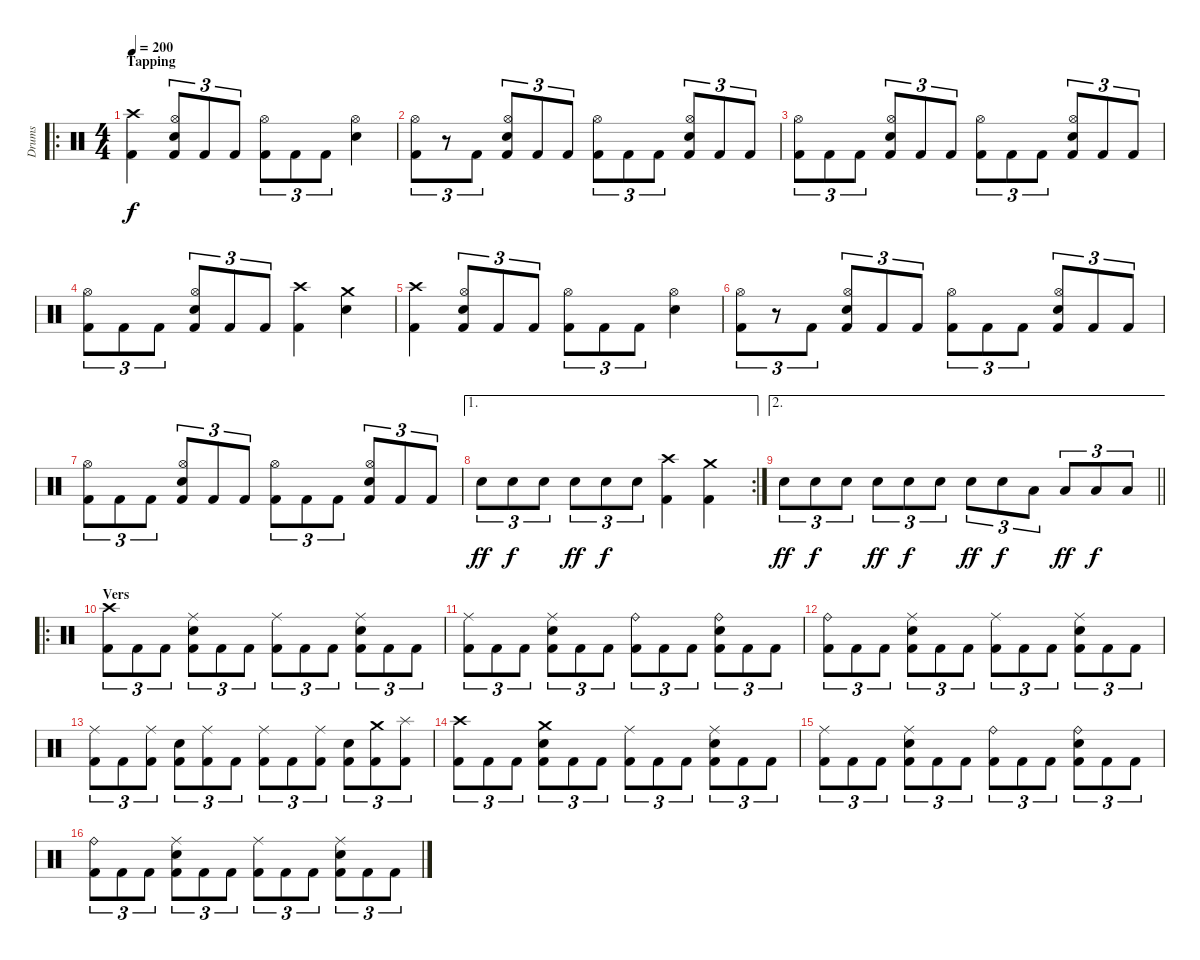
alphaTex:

\track ("Drums" "Drums") {instrument percussion}
\staff {score}
\articulation defaults
\ro
\ts (4 4)
\section ("" "Tapping")
\tempo 200
\clef neutral
\ks c
("Crash high (hit)" "Kick (hit) 2").4{dy f} ("Hi-Hat (open)" "Electric Snare (hit)" "Kick (hit) 2").8{tu (3 2)} "Kick (hit) 2".8{tu (3 2)} "Kick (hit) 2".8{tu (3 2)} ("Hi-Hat (open)" "Kick (hit) 2").8{tu (3 2)} "Kick (hit) 2".8{tu (3 2)} "Kick (hit) 2".8{tu (3 2)} ("Hi-Hat (open)" "Electric Snare (hit)").4 |
("Hi-Hat (open)" "Kick (hit) 2").8{tu (3 2)} r.8{tu (3 2)} "Kick (hit) 2".8{tu (3 2)} ("Hi-Hat (open)" "Electric Snare (hit)" "Kick (hit) 2").8{tu (3 2)} "Kick (hit) 2".8{tu (3 2)} "Kick (hit) 2".8{tu (3 2)} ("Hi-Hat (open)" "Kick (hit) 2").8{tu (3 2)} "Kick (hit) 2".8{tu (3 2)} "Kick (hit) 2".8{tu (3 2)} ("Hi-Hat (open)" "Electric Snare (hit)" "Kick (hit) 2").8{tu (3 2)} "Kick (hit) 2".8{tu (3 2)} "Kick (hit) 2".8{tu (3 2)} |
("Hi-Hat (open)" "Kick (hit) 2").8{tu (3 2)} "Kick (hit) 2".8{tu (3 2)} "Kick (hit) 2".8{tu (3 2)} ("Hi-Hat (open)" "Electric Snare (hit)" "Kick (hit) 2").8{tu (3 2)} "Kick (hit) 2".8{tu (3 2)} "Kick (hit) 2".8{tu (3 2)} ("Hi-Hat (open)" "Kick (hit) 2").8{tu (3 2)} "Kick (hit) 2".8{tu (3 2)} "Kick (hit) 2".8{tu (3 2)} ("Hi-Hat (open)" "Electric Snare (hit)" "Kick (hit) 2").8{tu (3 2)} "Kick (hit) 2".8{tu (3 2)} "Kick (hit) 2".8{tu (3 2)} |
("Hi-Hat (open)" "Kick (hit) 2").8{tu (3 2)} "Kick (hit) 2".8{tu (3 2)} "Kick (hit) 2".8{tu (3 2)} ("Hi-Hat (open)" "Electric Snare (hit)" "Kick (hit) 2").8{tu (3 2)} "Kick (hit) 2".8{tu (3 2)} "Kick (hit) 2".8{tu (3 2)} ("Crash high (hit)" "Kick (hit) 2").4 ("Crash medium (hit)" "Electric Snare (hit)").4 |
("Crash high (hit)" "Kick (hit) 2").4 ("Hi-Hat (open)" "Electric Snare (hit)" "Kick (hit) 2").8{tu (3 2)} "Kick (hit) 2".8{tu (3 2)} "Kick (hit) 2".8{tu (3 2)} ("Hi-Hat (open)" "Kick (hit) 2").8{tu (3 2)} "Kick (hit) 2".8{tu (3 2)} "Kick (hit) 2".8{tu (3 2)} ("Hi-Hat (open)" "Electric Snare (hit)").4 |
("Hi-Hat (open)" "Kick (hit) 2").8{tu (3 2)} r.8{tu (3 2)} "Kick (hit) 2".8{tu (3 2)} ("Hi-Hat (open)" "Electric Snare (hit)" "Kick (hit) 2").8{tu (3 2)} "Kick (hit) 2".8{tu (3 2)} "Kick (hit) 2".8{tu (3 2)} ("Hi-Hat (open)" "Kick (hit) 2").8{tu (3 2)} "Kick (hit) 2".8{tu (3 2)} "Kick (hit) 2".8{tu (3 2)} ("Hi-Hat (open)" "Electric Snare (hit)" "Kick (hit) 2").8{tu (3 2)} "Kick (hit) 2".8{tu (3 2)} "Kick (hit) 2".8{tu (3 2)} |
("Hi-Hat (open)" "Kick (hit) 2").8{tu (3 2)} "Kick (hit) 2".8{tu (3 2)} "Kick (hit) 2".8{tu (3 2)} ("Hi-Hat (open)" "Electric Snare (hit)" "Kick (hit) 2").8{tu (3 2)} "Kick (hit) 2".8{tu (3 2)} "Kick (hit) 2".8{tu (3 2)} ("Hi-Hat (open)" "Kick (hit) 2").8{tu (3 2)} "Kick (hit) 2".8{tu (3 2)} "Kick (hit) 2".8{tu (3 2)} ("Hi-Hat (open)" "Electric Snare (hit)" "Kick (hit) 2").8{tu (3 2)} "Kick (hit) 2".8{tu (3 2)} "Kick (hit) 2".8{tu (3 2)} |
\ae 1
\rc 2 "Electric Snare (hit)".8{tu (3 2) dy ff} "Electric Snare (hit)".8{tu (3 2) dy f} "Electric Snare (hit)".8{tu (3 2)} "Electric Snare (hit)".8{tu (3 2) dy ff} "Electric Snare (hit)".8{tu (3 2) dy f} "Electric Snare (hit)".8{tu (3 2)}
("Crash high (hit)" "Kick (hit) 2").4 ("Crash medium (hit)" "Kick (hit) 2").4 |
\ae 2
\barLineRight lightlight "Electric Snare (hit)".8{tu (3 2) dy ff} "Electric Snare (hit)".8{tu (3 2) dy f} "Electric Snare (hit)".8{tu (3 2)} "Electric Snare (hit)".8{tu (3 2) dy ff} "Electric Snare (hit)".8{tu (3 2) dy f} "Electric Snare (hit)".8{tu (3 2)} "Electric Snare (hit)".8{tu (3 2) dy ff} "Electric Snare (hit)".8{tu (3 2) dy f} "Low Tom (hit)".8{tu (3 2)} "Low Tom (hit)".8{tu (3 2) dy ff} "Low Tom (hit)".8{tu (3 2) dy f} "Low Tom (hit)".8{tu (3 2)}
|
\ro
\section ("" "Vers")
("Crash high (hit)" "Kick (hit) 2").8{tu (3 2)} "Kick (hit) 2".8{tu (3 2)} "Kick (hit) 2".8{tu (3 2)} ("Ride (middle)" "Electric Snare (hit)" "Kick (hit) 2").8{tu (3 2)} "Kick (hit) 2".8{tu (3 2)} "Kick (hit) 2".8{tu (3 2)} ("Ride (middle)" "Kick (hit) 2").8{tu (3 2)} "Kick (hit) 2".8{tu (3 2)} "Kick (hit) 2".8{tu (3 2)} ("Ride (middle)" "Electric Snare (hit)" "Kick (hit) 2").8{tu (3 2)} "Kick (hit) 2".8{tu (3 2)} "Kick (hit) 2".8{tu (3 2)} |
("Ride (middle)" "Kick (hit) 2").8{tu (3 2)} "Kick (hit) 2".8{tu (3 2)} "Kick (hit) 2".8{tu (3 2)} ("Ride (middle)" "Electric Snare (hit)" "Kick (hit) 2").8{tu (3 2)} "Kick (hit) 2".8{tu (3 2)} "Kick (hit) 2".8{tu (3 2)} ("Ride (bell)" "Kick (hit) 2").8{tu (3 2)} "Kick (hit) 2".8{tu (3 2)} "Kick (hit) 2".8{tu (3 2)} ("Ride (bell)" "Electric Snare (hit)" "Kick (hit) 2").8{tu (3 2)} "Kick (hit) 2".8{tu (3 2)} "Kick (hit) 2".8{tu (3 2)} |
("Ride (bell)" "Kick (hit) 2").8{tu (3 2)} "Kick (hit) 2".8{tu (3 2)} "Kick (hit) 2".8{tu (3 2)} ("Ride (middle)" "Electric Snare (hit)" "Kick (hit) 2").8{tu (3 2)} "Kick (hit) 2".8{tu (3 2)} "Kick (hit) 2".8{tu (3 2)} ("Ride (middle)" "Kick (hit) 2").8{tu (3 2)} "Kick (hit) 2".8{tu (3 2)} "Kick (hit) 2".8{tu (3 2)} ("Ride (middle)" "Electric Snare (hit)" "Kick (hit) 2").8{tu (3 2)} "Kick (hit) 2".8{tu (3 2)} "Kick (hit) 2".8{tu (3 2)} |
("Ride (middle)" "Kick (hit) 2").8{tu (3 2)} "Kick (hit) 2".8{tu (3 2)} ("Ride (middle)" "Kick (hit) 2").8{tu (3 2)} ("Electric Snare (hit)" "Kick (hit) 2").8{tu (3 2)} ("Ride (middle)" "Kick (hit) 2").8{tu (3 2)} "Kick (hit) 2".8{tu (3 2)} ("Ride (middle)" "Kick (hit) 2").8{tu (3 2)} "Kick (hit) 2".8{tu (3 2)} ("Ride (middle)" "Kick (hit) 2").8{tu (3 2)} ("Electric Snare (hit)" "Kick (hit) 2").8{tu (3 2)} ("Crash medium (hit)" "Kick (hit) 2").8{tu (3 2)} ("Splash (hit)" "Kick (hit) 2").8{tu (3 2)} |
("Crash high (hit)" "Kick (hit) 2").8{tu (3 2)} "Kick (hit) 2".8{tu (3 2)} "Kick (hit) 2".8{tu (3 2)} ("Crash medium (hit)" "Electric Snare (hit)" "Kick (hit) 2").8{tu (3 2)} "Kick (hit) 2".8{tu (3 2)} "Kick (hit) 2".8{tu (3 2)} ("Ride (middle)" "Kick (hit) 2").8{tu (3 2)} "Kick (hit) 2".8{tu (3 2)} "Kick (hit) 2".8{tu (3 2)} ("Ride (middle)" "Electric Snare (hit)" "Kick (hit) 2").8{tu (3 2)} "Kick (hit) 2".8{tu (3 2)} "Kick (hit) 2".8{tu (3 2)} |
("Ride (middle)" "Kick (hit) 2").8{tu (3 2)} "Kick (hit) 2".8{tu (3 2)} "Kick (hit) 2".8{tu (3 2)} ("Ride (middle)" "Electric Snare (hit)" "Kick (hit) 2").8{tu (3 2)} "Kick (hit) 2".8{tu (3 2)} "Kick (hit) 2".8{tu (3 2)} ("Ride (bell)" "Kick (hit) 2").8{tu (3 2)} "Kick (hit) 2".8{tu (3 2)} "Kick (hit) 2".8{tu (3 2)} ("Ride (bell)" "Electric Snare (hit)" "Kick (hit) 2").8{tu (3 2)} "Kick (hit) 2".8{tu (3 2)} "Kick (hit) 2".8{tu (3 2)} |
("Ride (bell)" "Kick (hit) 2").8{tu (3 2)} "Kick (hit) 2".8{tu (3 2)} "Kick (hit) 2".8{tu (3 2)} ("Ride (middle)" "Electric Snare (hit)" "Kick (hit) 2").8{tu (3 2)} "Kick (hit) 2".8{tu (3 2)} "Kick (hit) 2".8{tu (3 2)} ("Ride (middle)" "Kick (hit) 2").8{tu (3 2)} "Kick (hit) 2".8{tu (3 2)} "Kick (hit) 2".8{tu (3 2)} ("Ride (middle)" "Electric Snare (hit)" "Kick (hit) 2").8{tu (3 2)} "Kick (hit) 2".8{tu (3 2)} "Kick (hit) 2".8{tu (3 2)}
